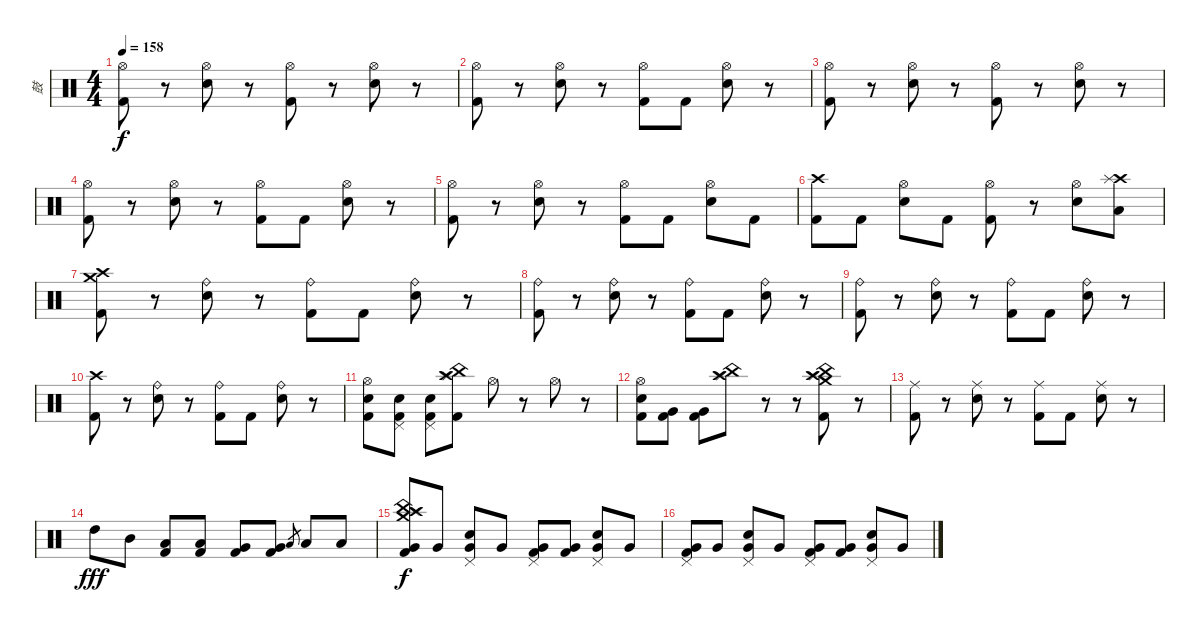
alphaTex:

\track ("鼓" "鼓") {instrument percussion}
\staff {score}
\articulation defaults
\ts (4 4)
\tempo 158
\clef neutral
\ks c
("Hi-Hat (open)" "Kick (hit) 2").8{dy f} r.8 ("Hi-Hat (open)" "Electric Snare (hit)").8 r.8 ("Hi-Hat (open)" "Kick (hit) 2").8 r.8 ("Hi-Hat (open)" "Electric Snare (hit)").8 r.8 |
("Hi-Hat (open)" "Kick (hit) 2").8 r.8 ("Hi-Hat (open)" "Electric Snare (hit)").8 r.8 ("Hi-Hat (open)" "Kick (hit) 2").8 "Kick (hit) 2".8 ("Hi-Hat (open)" "Electric Snare (hit)").8 r.8 |
("Hi-Hat (open)" "Kick (hit) 2").8 r.8 ("Hi-Hat (open)" "Electric Snare (hit)").8 r.8 ("Hi-Hat (open)" "Kick (hit) 2").8 r.8 ("Hi-Hat (open)" "Electric Snare (hit)").8 r.8 |
("Hi-Hat (open)" "Kick (hit) 2").8 r.8 ("Hi-Hat (open)" "Electric Snare (hit)").8 r.8 ("Hi-Hat (open)" "Kick (hit) 2").8 "Kick (hit) 2".8 ("Hi-Hat (open)" "Electric Snare (hit)").8 r.8 |
("Hi-Hat (open)" "Kick (hit) 2").8 r.8 ("Hi-Hat (open)" "Electric Snare (hit)").8 r.8 ("Hi-Hat (open)" "Kick (hit) 2").8 "Kick (hit) 2".8 ("Hi-Hat (open)" "Electric Snare (hit)").8 "Kick (hit) 2".8 |
("Crash high (hit)" "Kick (hit) 2").8 "Kick (hit) 2".8 ("Hi-Hat (open)" "Electric Snare (hit)").8 "Kick (hit) 2".8 ("Hi-Hat (open)" "Kick (hit) 2").8 r.8 ("Hi-Hat (open)" "Electric Snare (hit)").8 ("Crash high (hit)" "Splash (hit)" "Low Tom (hit)").8 |
("Crash high (hit)" "Crash medium (hit)" "Kick (hit) 2").8 r.8 ("Ride (bell)" "Electric Snare (hit)").8 r.8 ("Ride (bell)" "Kick (hit) 2").8 "Kick (hit) 2".8 ("Ride (bell)" "Electric Snare (hit)").8 r.8 |
("Ride (bell)" "Kick (hit) 2").8 r.8 ("Ride (bell)" "Electric Snare (hit)").8 r.8 ("Ride (bell)" "Kick (hit) 2").8 "Kick (hit) 2".8 ("Ride (bell)" "Electric Snare (hit)").8 r.8 |
("Ride (bell)" "Kick (hit) 2").8 r.8 ("Ride (bell)" "Electric Snare (hit)").8 r.8 ("Ride (bell)" "Kick (hit) 2").8 "Kick (hit) 2".8 ("Ride (bell)" "Electric Snare (hit)").8 r.8 |
("Crash high (hit)" "Kick (hit) 2").8 r.8 ("Ride (bell)" "Electric Snare (hit)").8 r.8 ("Ride (bell)" "Kick (hit) 2").8 "Kick (hit) 2".8 ("Ride (bell)" "Electric Snare (hit)").8 r.8 |
("Hi-Hat (open)" "Electric Snare (hit)" "Kick (hit) 2").8 ("Electric Snare (hit)" "Kick (hit) 2" "Pedal Hi-Hat (hit)").8 ("Electric Snare (hit)" "Kick (hit) 2" "Pedal Hi-Hat (hit)").8 ("Crash high (hit)" "Splash (hit)" "China (hit)" "Kick (hit) 2").8 "Hi-Hat (open)".8 r.8 "Hi-Hat (open)".8 r.8 |
("Hi-Hat (open)" "Electric Snare (hit)" "Kick (hit) 2").8 ("Very Low Tom (hit)" "Kick (hit) 2").8 ("Very Low Tom (hit)" "Kick (hit) 2").8 ("Crash high (hit)" "Splash (hit)" "China (hit)").8 r.8 r.8 ("Crash high (hit)" "Splash (hit)" "Crash medium (hit)" "China (hit)" "Kick (hit) 2").8 r.8 |
("Ride (middle)" "Kick (hit) 2").8 r.8 ("Ride (middle)" "Electric Snare (hit)").8 r.8 ("Ride (middle)" "Kick (hit) 2").8 "Kick (hit) 2".8 ("Ride (middle)" "Electric Snare (hit)").8 r.8 |
"High Tom (hit)".8{dy fff} "Mid Tom (hit)".8 ("Low Tom (hit)" "Kick (hit) 2").8 ("Low Tom (hit)" "Kick (hit) 2").8 ("Very Low Tom (hit)" "Kick (hit) 2").8 ("Very Low Tom (hit)" "Kick (hit) 2").8 "Low Floor Tom (hit)".8{gr} "Low Floor Tom (hit)".8 "Low Floor Tom (hit)".8 |
("Crash high (hit)" "Splash (hit)" "China (hit)" "Crash medium (hit)" "Kick (hit) 2" "Very Low Tom (hit)").8{dy f} "Very Low Tom (hit)".8 ("Pedal Hi-Hat (hit)" "Electric Snare (hit)" "Very Low Tom (hit)").8 "Very Low Tom (hit)".8 ("Pedal Hi-Hat (hit)" "Kick (hit) 2" "Very Low Tom (hit)").8 ("Kick (hit) 2" "Very Low Tom (hit)").8 ("Pedal Hi-Hat (hit)" "Electric Snare (hit)" "Very Low Tom (hit)").8 "Very Low Tom (hit)".8 |
("Pedal Hi-Hat (hit)" "Kick (hit) 2" "Very Low Tom (hit)").8 "Very Low Tom (hit)".8 ("Pedal Hi-Hat (hit)" "Electric Snare (hit)" "Very Low Tom (hit)").8 "Very Low Tom (hit)".8 ("Pedal Hi-Hat (hit)" "Kick (hit) 2" "Very Low Tom (hit)").8 ("Kick (hit) 2" "Very Low Tom (hit)").8 ("Pedal Hi-Hat (hit)" "Electric Snare (hit)" "Very Low Tom (hit)").8 "Very Low Tom (hit)".8
